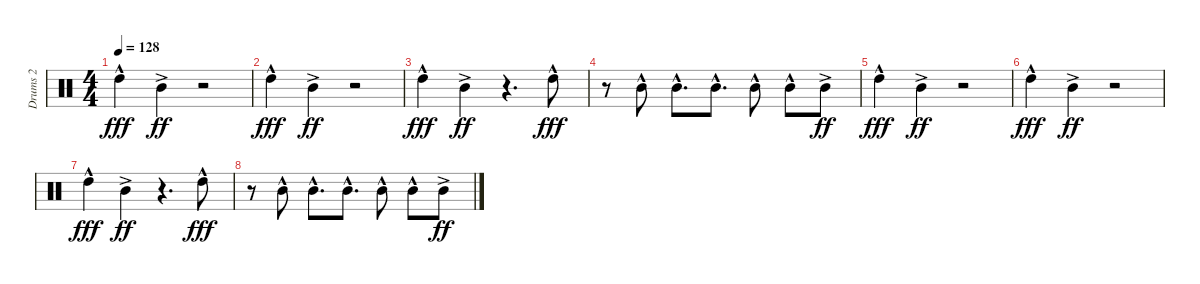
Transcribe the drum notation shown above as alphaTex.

\track ("Drums 2" "Drums 2") {instrument percussion}
\staff {score}
\articulation defaults
\ts (4 4)
\tempo 128
\clef neutral
\ks c "High Tom (hit)"{hac}.4{dy fff} "Mid Tom (hit)"{ac}.4{dy ff}
r.2 |
"High Tom (hit)"{hac}.4{dy fff} "Mid Tom (hit)"{ac}.4{dy ff} r.2 |
"High Tom (hit)"{hac}.4{dy fff} "Mid Tom (hit)"{ac}.4{dy ff} r.4{d} "High Tom (hit)"{hac}.8{dy fff} |
r.8 "Mid Tom (hit)"{hac}.8 "Mid Tom (hit)"{hac}.8{d} "Mid Tom (hit)"{hac}.8{d} "Mid Tom (hit)"{hac}.8 "Mid Tom (hit)"{hac}.8 "Mid Tom (hit)"{ac}.8{dy ff} |
"High Tom (hit)"{hac}.4{dy fff} "Mid Tom (hit)"{ac}.4{dy ff} r.2 |
"High Tom (hit)"{hac}.4{dy fff} "Mid Tom (hit)"{ac}.4{dy ff} r.2 |
"High Tom (hit)"{hac}.4{dy fff} "Mid Tom (hit)"{ac}.4{dy ff} r.4{d} "High Tom (hit)"{hac}.8{dy fff} |
r.8 "Mid Tom (hit)"{hac}.8 "Mid Tom (hit)"{hac}.8{d} "Mid Tom (hit)"{hac}.8{d} "Mid Tom (hit)"{hac}.8 "Mid Tom (hit)"{hac}.8 "Mid Tom (hit)"{ac}.8{dy ff}
